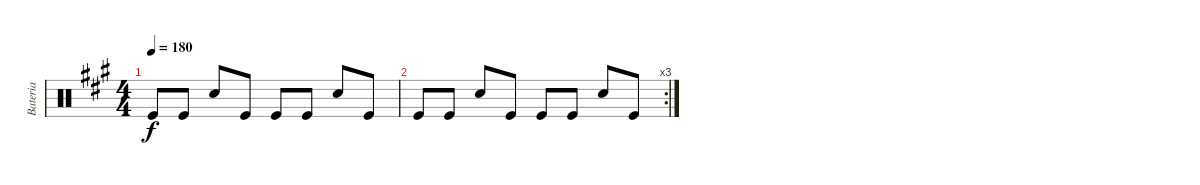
\track ("Bateria" "Bateria") {instrument percussion}
\staff {score}
\articulation defaults
\ts (4 4)
\tempo 180
\clef neutral
\ks a "Kick (hit)".8{dy f} "Kick (hit)".8 "Electric Snare (hit)".8 "Kick (hit)".8 "Kick (hit)".8 "Kick (hit)".8 "Electric Snare (hit)".8 "Kick (hit)".8
|
\rc 3 "Kick (hit)".8 "Kick (hit)".8 "Electric Snare (hit)".8 "Kick (hit)".8 "Kick (hit)".8 "Kick (hit)".8 "Electric Snare (hit)".8 "Kick (hit)".8
